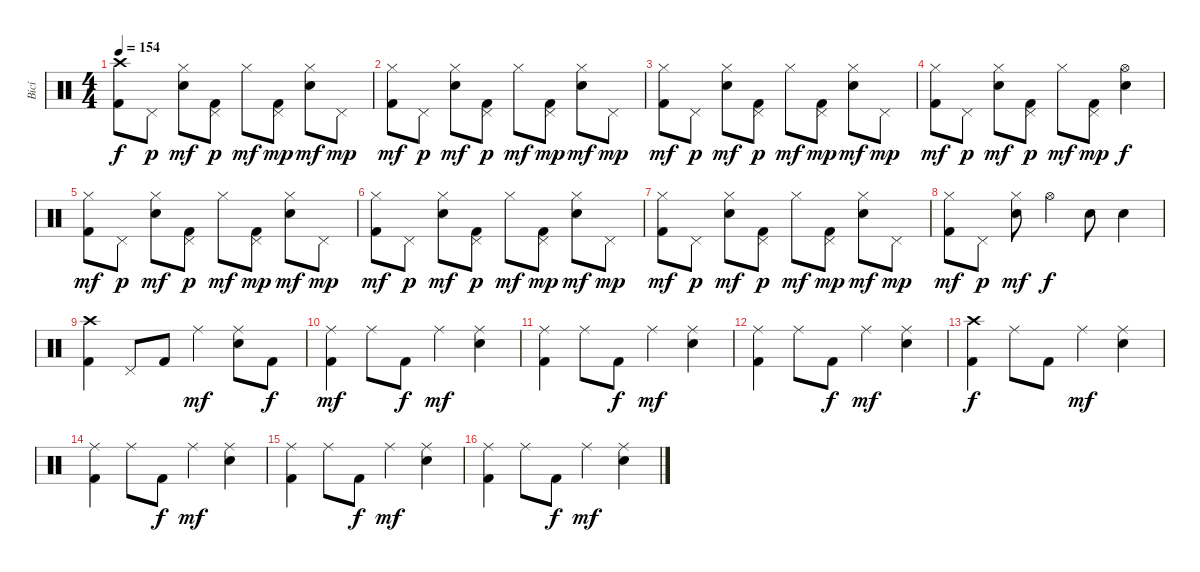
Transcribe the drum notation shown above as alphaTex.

\track ("Bicí" "Bicí") {instrument percussion}
\staff {score}
\articulation defaults
\ts (4 4)
\tempo 154
\clef neutral
\ks c
("Crash high (hit)" "Kick (hit) 2").8{dy f} "Pedal Hi-Hat (hit)".8{dy p} ("Hi-Hat (closed)" "Electric Snare (hit)").8{dy mf} ("Pedal Hi-Hat (hit)" "Kick (hit) 2").8{dy p} "Hi-Hat (closed)".8{dy mf} ("Pedal Hi-Hat (hit)" "Kick (hit) 2").8{dy mp} ("Hi-Hat (closed)" "Electric Snare (hit)").8{dy mf} "Pedal Hi-Hat (hit)".8{dy mp} |
("Hi-Hat (closed)" "Kick (hit) 2").8{dy mf} "Pedal Hi-Hat (hit)".8{dy p} ("Hi-Hat (closed)" "Electric Snare (hit)").8{dy mf} ("Pedal Hi-Hat (hit)" "Kick (hit) 2").8{dy p} "Hi-Hat (closed)".8{dy mf} ("Pedal Hi-Hat (hit)" "Kick (hit) 2").8{dy mp} ("Hi-Hat (closed)" "Electric Snare (hit)").8{dy mf} "Pedal Hi-Hat (hit)".8{dy mp} |
("Hi-Hat (closed)" "Kick (hit) 2").8{dy mf} "Pedal Hi-Hat (hit)".8{dy p} ("Hi-Hat (closed)" "Electric Snare (hit)").8{dy mf} ("Pedal Hi-Hat (hit)" "Kick (hit) 2").8{dy p} "Hi-Hat (closed)".8{dy mf} ("Pedal Hi-Hat (hit)" "Kick (hit) 2").8{dy mp} ("Hi-Hat (closed)" "Electric Snare (hit)").8{dy mf} "Pedal Hi-Hat (hit)".8{dy mp} |
("Hi-Hat (closed)" "Kick (hit) 2").8{dy mf} "Pedal Hi-Hat (hit)".8{dy p} ("Hi-Hat (closed)" "Electric Snare (hit)").8{dy mf} ("Pedal Hi-Hat (hit)" "Kick (hit) 2").8{dy p} "Hi-Hat (closed)".8{dy mf} ("Pedal Hi-Hat (hit)" "Kick (hit) 2").8{dy mp} ("Hi-Hat (open)" "Electric Snare (hit)").4{dy f} |
("Hi-Hat (closed)" "Kick (hit) 2").8{dy mf} "Pedal Hi-Hat (hit)".8{dy p} ("Hi-Hat (closed)" "Electric Snare (hit)").8{dy mf} ("Pedal Hi-Hat (hit)" "Kick (hit) 2").8{dy p} "Hi-Hat (closed)".8{dy mf} ("Pedal Hi-Hat (hit)" "Kick (hit) 2").8{dy mp} ("Hi-Hat (closed)" "Electric Snare (hit)").8{dy mf} "Pedal Hi-Hat (hit)".8{dy mp} |
("Hi-Hat (closed)" "Kick (hit) 2").8{dy mf} "Pedal Hi-Hat (hit)".8{dy p} ("Hi-Hat (closed)" "Electric Snare (hit)").8{dy mf} ("Pedal Hi-Hat (hit)" "Kick (hit) 2").8{dy p} "Hi-Hat (closed)".8{dy mf} ("Pedal Hi-Hat (hit)" "Kick (hit) 2").8{dy mp} ("Hi-Hat (closed)" "Electric Snare (hit)").8{dy mf} "Pedal Hi-Hat (hit)".8{dy mp} |
("Hi-Hat (closed)" "Kick (hit) 2").8{dy mf} "Pedal Hi-Hat (hit)".8{dy p} ("Hi-Hat (closed)" "Electric Snare (hit)").8{dy mf} ("Pedal Hi-Hat (hit)" "Kick (hit) 2").8{dy p} "Hi-Hat (closed)".8{dy mf} ("Pedal Hi-Hat (hit)" "Kick (hit) 2").8{dy mp} ("Hi-Hat (closed)" "Electric Snare (hit)").8{dy mf} "Pedal Hi-Hat (hit)".8{dy mp} |
("Hi-Hat (closed)" "Kick (hit) 2").8{dy mf} "Pedal Hi-Hat (hit)".8{dy p} ("Hi-Hat (closed)" "Electric Snare (hit)").8{dy mf} "Hi-Hat (open)".4{dy f} "Electric Snare (hit)".8 "Electric Snare (hit)".4 |
("Crash high (hit)" "Kick (hit) 2").4 "Pedal Hi-Hat (hit)".8 "Kick (hit) 2".8 "Ride (middle)".4{dy mf} ("Ride (middle)" "Electric Snare (hit)").8 "Kick (hit) 2".8{dy f} |
("Ride (middle)" "Kick (hit) 2").4{dy mf} "Ride (middle)".8 "Kick (hit) 2".8{dy f} "Ride (middle)".4{dy mf} ("Ride (middle)" "Electric Snare (hit)").4 |
("Ride (middle)" "Kick (hit) 2").4 "Ride (middle)".8 "Kick (hit) 2".8{dy f} "Ride (middle)".4{dy mf} ("Ride (middle)" "Electric Snare (hit)").4 |
("Ride (middle)" "Kick (hit) 2").4 "Ride (middle)".8 "Kick (hit) 2".8{dy f} "Ride (middle)".4{dy mf} ("Ride (middle)" "Electric Snare (hit)").4 |
("Crash high (hit)" "Kick (hit) 2").4{dy f} "Ride (middle)".8 "Kick (hit) 2".8 "Ride (middle)".4{dy mf} ("Ride (middle)" "Electric Snare (hit)").4 |
("Ride (middle)" "Kick (hit) 2").4 "Ride (middle)".8 "Kick (hit) 2".8{dy f} "Ride (middle)".4{dy mf} ("Ride (middle)" "Electric Snare (hit)").4 |
("Ride (middle)" "Kick (hit) 2").4 "Ride (middle)".8 "Kick (hit) 2".8{dy f} "Ride (middle)".4{dy mf} ("Ride (middle)" "Electric Snare (hit)").4 |
("Ride (middle)" "Kick (hit) 2").4 "Ride (middle)".8 "Kick (hit) 2".8{dy f} "Ride (middle)".4{dy mf} ("Ride (middle)" "Electric Snare (hit)").4
